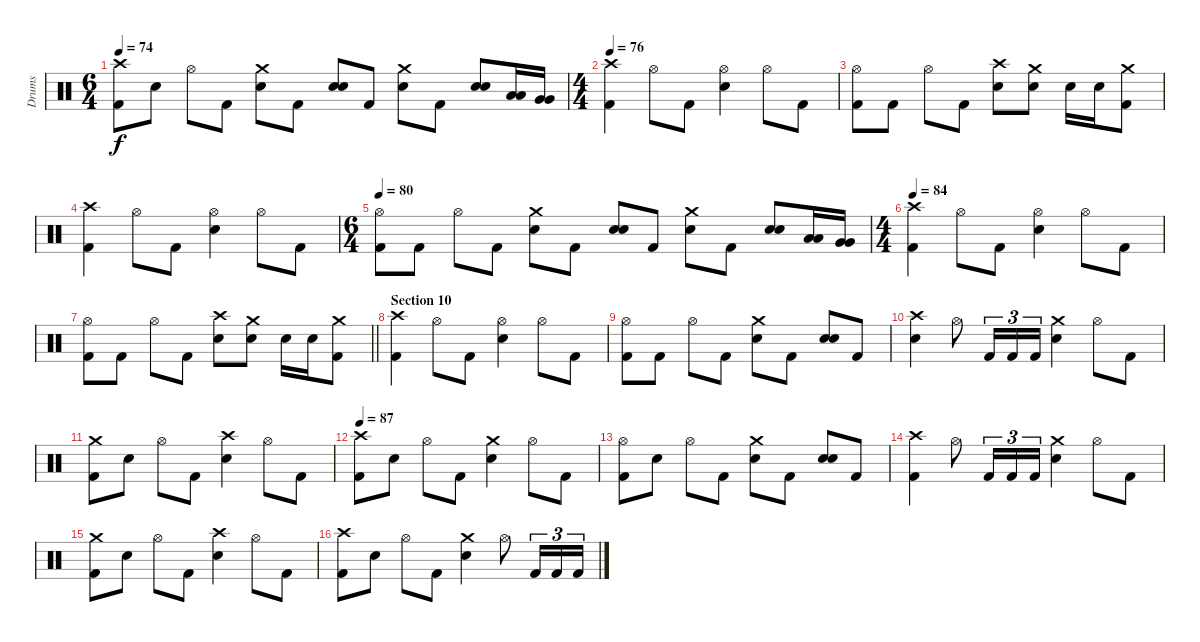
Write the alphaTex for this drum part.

\track ("Drums" "Drums") {instrument percussion}
\staff {score}
\articulation defaults
\ts (6 4)
\tempo 74
\clef neutral
\ks c
("Crash high (hit)" "Kick (hit) 2").8{dy f} "Electric Snare (hit)".8 "Hi-Hat (open)".8 "Kick (hit) 2".8 ("Crash medium (hit)" "Electric Snare (hit)").8 "Kick (hit) 2".8 ("Electric Snare (hit)" "Electric Snare (hit)").8{bu 60} "Kick (hit) 2".8 ("Crash medium (hit)" "Electric Snare (hit)").8 "Kick (hit) 2".8 ("Electric Snare (hit)" "Electric Snare (hit)").8{bu 60} ("Low Tom (hit)" "Low Tom (hit)").16{bu 60} ("Very Low Tom (hit)" "Very Low Tom (hit)").16{bu 60} |
\ts (4 4)
\tempo 76
("Crash high (hit)" "Kick (hit) 2").4 "Hi-Hat (open)".8 "Kick (hit) 2".8 ("Hi-Hat (open)" "Electric Snare (hit)").4 "Hi-Hat (open)".8 "Kick (hit) 2".8 |
("Hi-Hat (open)" "Kick (hit) 2").8 "Kick (hit) 2".8 "Hi-Hat (open)".8 "Kick (hit) 2".8 ("Crash high (hit)" "Electric Snare (hit)").8 ("Crash medium (hit)" "Electric Snare (hit)").8 "Electric Snare (hit)".16 "Electric Snare (hit)".16 ("Crash medium (hit)" "Kick (hit) 2").8 |
("Crash high (hit)" "Kick (hit) 2").4 "Hi-Hat (open)".8 "Kick (hit) 2".8 ("Hi-Hat (open)" "Electric Snare (hit)").4 "Hi-Hat (open)".8 "Kick (hit) 2".8 |
\ts (6 4)
\tempo 80
("Hi-Hat (open)" "Kick (hit) 2").8 "Kick (hit) 2".8 "Hi-Hat (open)".8 "Kick (hit) 2".8 ("Crash medium (hit)" "Electric Snare (hit)").8 "Kick (hit) 2".8 ("Electric Snare (hit)" "Electric Snare (hit)").8{bu 60} "Kick (hit) 2".8 ("Crash medium (hit)" "Electric Snare (hit)").8 "Kick (hit) 2".8 ("Electric Snare (hit)" "Electric Snare (hit)").8{bu 60} ("Low Tom (hit)" "Low Tom (hit)").16{bu 60} ("Very Low Tom (hit)" "Very Low Tom (hit)").16{bu 60} |
\ts (4 4)
\tempo 84
("Crash high (hit)" "Kick (hit) 2").4 "Hi-Hat (open)".8 "Kick (hit) 2".8 ("Hi-Hat (open)" "Electric Snare (hit)").4 "Hi-Hat (open)".8 "Kick (hit) 2".8 |
\barLineRight lightlight
("Hi-Hat (open)" "Kick (hit) 2").8 "Kick (hit) 2".8 "Hi-Hat (open)".8 "Kick (hit) 2".8 ("Crash high (hit)" "Electric Snare (hit)").8 ("Crash medium (hit)" "Electric Snare (hit)").8 "Electric Snare (hit)".16 "Electric Snare (hit)".16 ("Crash medium (hit)" "Kick (hit) 2").8 |
\section ("" "Section 10")
("Crash high (hit)" "Kick (hit) 2").4 "Hi-Hat (open)".8 "Kick (hit) 2".8 ("Hi-Hat (open)" "Electric Snare (hit)").4 "Hi-Hat (open)".8 "Kick (hit) 2".8 |
("Hi-Hat (open)" "Kick (hit) 2").8 "Kick (hit) 2".8 "Hi-Hat (open)".8 "Kick (hit) 2".8 ("Crash medium (hit)" "Electric Snare (hit)").8 "Kick (hit) 2".8 ("Electric Snare (hit)" "Electric Snare (hit)").8{bu 60} "Kick (hit) 2".8 |
("Crash high (hit)" "Electric Snare (hit)").4 "Hi-Hat (open)".8 "Kick (hit) 2".16{tu (3 2)} "Kick (hit) 2".16{tu (3 2)} "Kick (hit) 2".16{tu (3 2)} ("Crash medium (hit)" "Electric Snare (hit)").4 "Hi-Hat (open)".8 "Kick (hit) 2".8 |
("Crash medium (hit)" "Kick (hit) 2").8 "Electric Snare (hit)".8 "Hi-Hat (open)".8 "Kick (hit) 2".8 ("Crash high (hit)" "Electric Snare (hit)").4 "Hi-Hat (open)".8 "Kick (hit) 2".8 |
\tempo 87
("Crash high (hit)" "Kick (hit) 2").8 "Electric Snare (hit)".8 "Hi-Hat (open)".8 "Kick (hit) 2".8 ("Crash medium (hit)" "Electric Snare (hit)").4 "Hi-Hat (open)".8 "Kick (hit) 2".8 |
("Hi-Hat (open)" "Kick (hit) 2").8 "Electric Snare (hit)".8 "Hi-Hat (open)".8 "Kick (hit) 2".8 ("Crash medium (hit)" "Electric Snare (hit)").8 "Kick (hit) 2".8 ("Electric Snare (hit)" "Electric Snare (hit)").8{bu 60} "Kick (hit) 2".8 |
("Crash high (hit)" "Kick (hit) 2").4 "Hi-Hat (open)".8 "Kick (hit) 2".16{tu (3 2)} "Kick (hit) 2".16{tu (3 2)} "Kick (hit) 2".16{tu (3 2)} ("Crash medium (hit)" "Electric Snare (hit)").4 "Hi-Hat (open)".8 "Kick (hit) 2".8 |
("Crash medium (hit)" "Kick (hit) 2").8 "Electric Snare (hit)".8 "Hi-Hat (open)".8 "Kick (hit) 2".8 ("Crash high (hit)" "Electric Snare (hit)").4 "Hi-Hat (open)".8 "Kick (hit) 2".8 |
("Crash high (hit)" "Kick (hit) 2").8 "Electric Snare (hit)".8 "Hi-Hat (open)".8 "Kick (hit) 2".8 ("Crash medium (hit)" "Electric Snare (hit)").4 "Hi-Hat (open)".8 "Kick (hit) 2".16{tu (3 2)} "Kick (hit) 2".16{tu (3 2)} "Kick (hit) 2".16{tu (3 2)}
